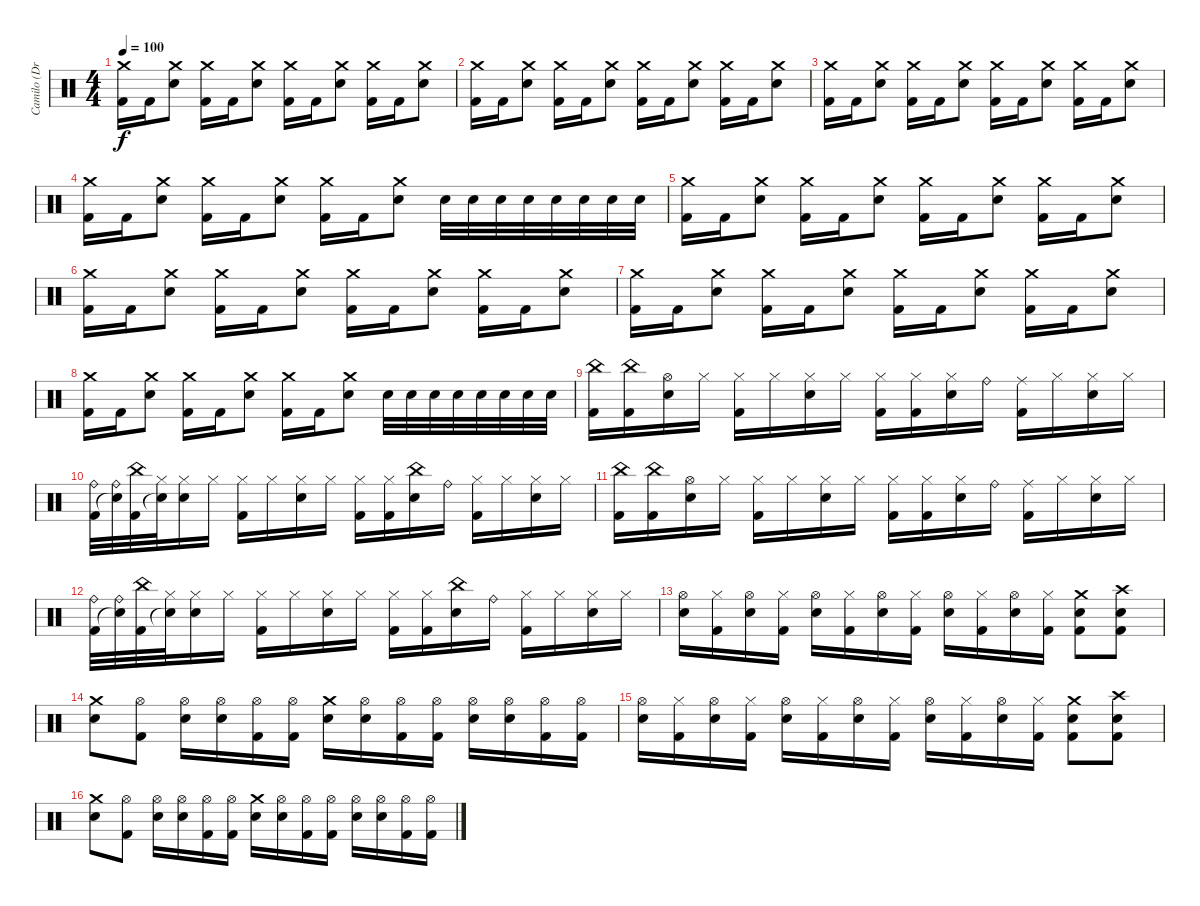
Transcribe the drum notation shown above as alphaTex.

\track ("Camilo (Drums)" "Camilo (Dr") {instrument percussion}
\staff {score}
\articulation defaults
\ts (4 4)
\tempo 100
\clef neutral
\ks c
("Crash medium (hit)" "Kick (hit) 2").16{dy f} "Kick (hit) 2".16 ("Crash medium (hit)" "Electric Snare (hit)").8 ("Crash medium (hit)" "Kick (hit) 2").16 "Kick (hit) 2".16 ("Crash medium (hit)" "Electric Snare (hit)").8 ("Crash medium (hit)" "Kick (hit) 2").16 "Kick (hit) 2".16 ("Crash medium (hit)" "Electric Snare (hit)").8 ("Crash medium (hit)" "Kick (hit) 2").16 "Kick (hit) 2".16 ("Crash medium (hit)" "Electric Snare (hit)").8 |
("Crash medium (hit)" "Kick (hit) 2").16 "Kick (hit) 2".16 ("Crash medium (hit)" "Electric Snare (hit)").8 ("Crash medium (hit)" "Kick (hit) 2").16 "Kick (hit) 2".16 ("Crash medium (hit)" "Electric Snare (hit)").8 ("Crash medium (hit)" "Kick (hit) 2").16 "Kick (hit) 2".16 ("Crash medium (hit)" "Electric Snare (hit)").8 ("Crash medium (hit)" "Kick (hit) 2").16 "Kick (hit) 2".16 ("Crash medium (hit)" "Electric Snare (hit)").8 |
("Crash medium (hit)" "Kick (hit) 2").16 "Kick (hit) 2".16 ("Crash medium (hit)" "Electric Snare (hit)").8 ("Crash medium (hit)" "Kick (hit) 2").16 "Kick (hit) 2".16 ("Crash medium (hit)" "Electric Snare (hit)").8 ("Crash medium (hit)" "Kick (hit) 2").16 "Kick (hit) 2".16 ("Crash medium (hit)" "Electric Snare (hit)").8 ("Crash medium (hit)" "Kick (hit) 2").16 "Kick (hit) 2".16 ("Crash medium (hit)" "Electric Snare (hit)").8 |
("Crash medium (hit)" "Kick (hit) 2").16 "Kick (hit) 2".16 ("Crash medium (hit)" "Electric Snare (hit)").8 ("Crash medium (hit)" "Kick (hit) 2").16 "Kick (hit) 2".16 ("Crash medium (hit)" "Electric Snare (hit)").8 ("Crash medium (hit)" "Kick (hit) 2").16 "Kick (hit) 2".16 ("Crash medium (hit)" "Electric Snare (hit)").8 "Electric Snare (hit)".32 "Electric Snare (hit)".32 "Electric Snare (hit)".32 "Electric Snare (hit)".32 "Electric Snare (hit)".32 "Electric Snare (hit)".32 "Electric Snare (hit)".32 "Electric Snare (hit)".32 |
("Crash medium (hit)" "Kick (hit) 2").16 "Kick (hit) 2".16 ("Crash medium (hit)" "Electric Snare (hit)").8 ("Crash medium (hit)" "Kick (hit) 2").16 "Kick (hit) 2".16 ("Crash medium (hit)" "Electric Snare (hit)").8 ("Crash medium (hit)" "Kick (hit) 2").16 "Kick (hit) 2".16 ("Crash medium (hit)" "Electric Snare (hit)").8 ("Crash medium (hit)" "Kick (hit) 2").16 "Kick (hit) 2".16 ("Crash medium (hit)" "Electric Snare (hit)").8 |
("Crash medium (hit)" "Kick (hit) 2").16 "Kick (hit) 2".16 ("Crash medium (hit)" "Electric Snare (hit)").8 ("Crash medium (hit)" "Kick (hit) 2").16 "Kick (hit) 2".16 ("Crash medium (hit)" "Electric Snare (hit)").8 ("Crash medium (hit)" "Kick (hit) 2").16 "Kick (hit) 2".16 ("Crash medium (hit)" "Electric Snare (hit)").8 ("Crash medium (hit)" "Kick (hit) 2").16 "Kick (hit) 2".16 ("Crash medium (hit)" "Electric Snare (hit)").8 |
("Crash medium (hit)" "Kick (hit) 2").16 "Kick (hit) 2".16 ("Crash medium (hit)" "Electric Snare (hit)").8 ("Crash medium (hit)" "Kick (hit) 2").16 "Kick (hit) 2".16 ("Crash medium (hit)" "Electric Snare (hit)").8 ("Crash medium (hit)" "Kick (hit) 2").16 "Kick (hit) 2".16 ("Crash medium (hit)" "Electric Snare (hit)").8 ("Crash medium (hit)" "Kick (hit) 2").16 "Kick (hit) 2".16 ("Crash medium (hit)" "Electric Snare (hit)").8 |
("Crash medium (hit)" "Kick (hit) 2").16 "Kick (hit) 2".16 ("Crash medium (hit)" "Electric Snare (hit)").8 ("Crash medium (hit)" "Kick (hit) 2").16 "Kick (hit) 2".16 ("Crash medium (hit)" "Electric Snare (hit)").8 ("Crash medium (hit)" "Kick (hit) 2").16 "Kick (hit) 2".16 ("Crash medium (hit)" "Electric Snare (hit)").8 "Electric Snare (hit)".32 "Electric Snare (hit)".32 "Electric Snare (hit)".32 "Electric Snare (hit)".32 "Electric Snare (hit)".32 "Electric Snare (hit)".32 "Electric Snare (hit)".32 "Electric Snare (hit)".32 |
("China (hit)" "Kick (hit) 2").16 ("China (hit)" "Kick (hit) 2").16 ("Hi-Hat (open)" "Electric Snare (hit)").16 "Hi-Hat (closed)".16 ("Hi-Hat (closed)" "Kick (hit) 2").16 "Hi-Hat (closed)".16 ("Hi-Hat (closed)" "Electric Snare (hit)").16 "Hi-Hat (closed)".16 ("Hi-Hat (closed)" "Kick (hit) 2").16 ("Hi-Hat (closed)" "Kick (hit) 2").16 ("Hi-Hat (closed)" "Electric Snare (hit)").16 "Ride (bell)".16 ("Ride (middle)" "Kick (hit) 2").16 "Hi-Hat (closed)".16 ("Hi-Hat (closed)" "Electric Snare (hit)").16 "Hi-Hat (closed)".16 |
("Ride (bell)" "Kick (hit) 2").32 ("Ride (bell)" "Snare (hit)"{t}).32 ("China (hit)" "Kick (hit) 2").32 ("Hi-Hat (closed)" "Snare (hit)"{t}).32 ("Hi-Hat (closed)" "Electric Snare (hit)").16 "Hi-Hat (closed)".16 ("Hi-Hat (closed)" "Kick (hit) 2").16 "Hi-Hat (closed)".16 ("Hi-Hat (closed)" "Electric Snare (hit)").16 "Hi-Hat (closed)".16 ("Hi-Hat (closed)" "Kick (hit) 2").16 ("Hi-Hat (closed)" "Kick (hit) 2").16 ("China (hit)" "Electric Snare (hit)").16 "Ride (bell)".16 ("Hi-Hat (closed)" "Kick (hit) 2").16 "Hi-Hat (closed)".16 ("Hi-Hat (closed)" "Electric Snare (hit)").16 "Hi-Hat (closed)".16 |
("China (hit)" "Kick (hit) 2").16 ("China (hit)" "Kick (hit) 2").16 ("Hi-Hat (open)" "Electric Snare (hit)").16 "Hi-Hat (closed)".16 ("Hi-Hat (closed)" "Kick (hit) 2").16 "Hi-Hat (closed)".16 ("Hi-Hat (closed)" "Electric Snare (hit)").16 "Hi-Hat (closed)".16 ("Hi-Hat (closed)" "Kick (hit) 2").16 ("Hi-Hat (closed)" "Kick (hit) 2").16 ("Hi-Hat (closed)" "Electric Snare (hit)").16 "Ride (bell)".16 ("Ride (middle)" "Kick (hit) 2").16 "Hi-Hat (closed)".16 ("Hi-Hat (closed)" "Electric Snare (hit)").16 "Hi-Hat (closed)".16 |
("Ride (bell)" "Kick (hit) 2").32 ("Ride (bell)" "Snare (hit)"{t}).32 ("China (hit)" "Kick (hit) 2").32 ("Hi-Hat (closed)" "Snare (hit)"{t}).32 ("Hi-Hat (closed)" "Electric Snare (hit)").16 "Hi-Hat (closed)".16 ("Hi-Hat (closed)" "Kick (hit) 2").16 "Hi-Hat (closed)".16 ("Hi-Hat (closed)" "Electric Snare (hit)").16 "Hi-Hat (closed)".16 ("Hi-Hat (closed)" "Kick (hit) 2").16 ("Hi-Hat (closed)" "Kick (hit) 2").16 ("China (hit)" "Electric Snare (hit)").16 "Ride (bell)".16 ("Hi-Hat (closed)" "Kick (hit) 2").16 "Hi-Hat (closed)".16 ("Hi-Hat (closed)" "Electric Snare (hit)").16 "Hi-Hat (closed)".16 |
("Hi-Hat (open)" "Electric Snare (hit)").16 ("Hi-Hat (closed)" "Kick (hit) 2").16 ("Hi-Hat (open)" "Electric Snare (hit)").16 ("Hi-Hat (closed)" "Kick (hit) 2").16 ("Hi-Hat (open)" "Electric Snare (hit)").16 ("Hi-Hat (closed)" "Kick (hit) 2").16 ("Hi-Hat (open)" "Electric Snare (hit)").16 ("Hi-Hat (closed)" "Kick (hit) 2").16 ("Hi-Hat (open)" "Electric Snare (hit)").16 ("Hi-Hat (closed)" "Kick (hit) 2").16 ("Hi-Hat (open)" "Electric Snare (hit)").16 ("Hi-Hat (closed)" "Kick (hit) 2").16 ("Crash medium (hit)" "Electric Snare (hit)" "Kick (hit) 2").8 ("Crash high (hit)" "Electric Snare (hit)" "Kick (hit) 2").8 |
("Crash medium (hit)" "Electric Snare (hit)").8 ("Hi-Hat (open)" "Kick (hit) 2").8 ("Hi-Hat (open)" "Electric Snare (hit)").16 ("Hi-Hat (open)" "Electric Snare (hit)").16 ("Hi-Hat (open)" "Kick (hit) 2").16 ("Hi-Hat (open)" "Kick (hit) 2").16 ("Crash medium (hit)" "Electric Snare (hit)").16 ("Hi-Hat (open)" "Electric Snare (hit)").16 ("Hi-Hat (open)" "Kick (hit) 2").16 ("Hi-Hat (open)" "Kick (hit) 2").16 ("Hi-Hat (open)" "Electric Snare (hit)").16 ("Hi-Hat (open)" "Electric Snare (hit)").16 ("Hi-Hat (open)" "Kick (hit) 2").16 ("Hi-Hat (open)" "Kick (hit) 2").16 |
("Hi-Hat (open)" "Electric Snare (hit)").16 ("Hi-Hat (closed)" "Kick (hit) 2").16 ("Hi-Hat (open)" "Electric Snare (hit)").16 ("Hi-Hat (closed)" "Kick (hit) 2").16 ("Hi-Hat (open)" "Electric Snare (hit)").16 ("Hi-Hat (closed)" "Kick (hit) 2").16 ("Hi-Hat (open)" "Electric Snare (hit)").16 ("Hi-Hat (closed)" "Kick (hit) 2").16 ("Hi-Hat (open)" "Electric Snare (hit)").16 ("Hi-Hat (closed)" "Kick (hit) 2").16 ("Hi-Hat (open)" "Electric Snare (hit)").16 ("Hi-Hat (closed)" "Kick (hit) 2").16 ("Crash medium (hit)" "Electric Snare (hit)" "Kick (hit) 2").8 ("Crash high (hit)" "Electric Snare (hit)" "Kick (hit) 2").8 |
("Crash medium (hit)" "Electric Snare (hit)").8 ("Hi-Hat (open)" "Kick (hit) 2").8 ("Hi-Hat (open)" "Electric Snare (hit)").16 ("Hi-Hat (open)" "Electric Snare (hit)").16 ("Hi-Hat (open)" "Kick (hit) 2").16 ("Hi-Hat (open)" "Kick (hit) 2").16 ("Crash medium (hit)" "Electric Snare (hit)").16 ("Hi-Hat (open)" "Electric Snare (hit)").16 ("Hi-Hat (open)" "Kick (hit) 2").16 ("Hi-Hat (open)" "Kick (hit) 2").16 ("Hi-Hat (open)" "Electric Snare (hit)").16 ("Hi-Hat (open)" "Electric Snare (hit)").16 ("Hi-Hat (open)" "Kick (hit) 2").16 ("Hi-Hat (open)" "Kick (hit) 2").16
